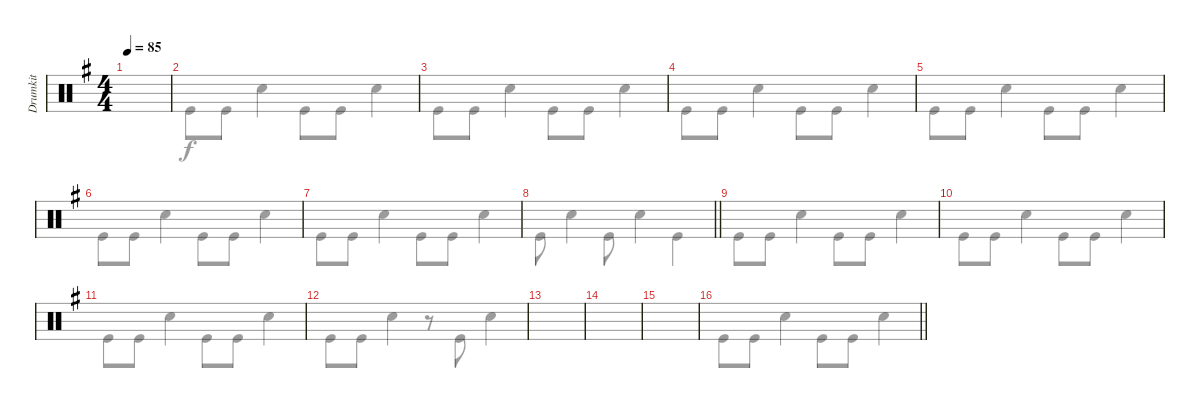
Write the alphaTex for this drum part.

\track ("Drumkit" "Drumkit") {instrument percussion}
\staff {score}
\articulation defaults
\voice
\ts (4 4)
\tempo 85
\clef neutral
\ks eminor
|
|
|
|
|
|
|
\barLineRight lightlight
|
|
|
|
|
|
|
|
\barLineRight lightlight
\voice
\clef neutral
\ks eminor "Kick (hit)".8{dy f} "Kick (hit)".8 "Snare (hit) 2".4 "Kick (hit)".8 "Kick (hit)".8 "Snare (hit) 2".4
|
"Kick (hit)".8 "Kick (hit)".8 "Snare (hit) 2".4 "Kick (hit)".8 "Kick (hit)".8 "Snare (hit) 2".4 |
"Kick (hit)".8 "Kick (hit)".8 "Snare (hit) 2".4 "Kick (hit)".8 "Kick (hit)".8 "Snare (hit) 2".4 |
"Kick (hit)".8 "Kick (hit)".8 "Snare (hit) 2".4 "Kick (hit)".8 "Kick (hit)".8 "Snare (hit) 2".4 |
"Kick (hit)".8 "Kick (hit)".8 "Snare (hit) 2".4 "Kick (hit)".8 "Kick (hit)".8 "Snare (hit) 2".4 |
"Kick (hit)".8 "Kick (hit)".8 "Snare (hit) 2".4 "Kick (hit)".8 "Kick (hit)".8 "Snare (hit) 2".4 |
"Kick (hit)".8 "Kick (hit)".8 "Snare (hit) 2".4 "Kick (hit)".8 "Kick (hit)".8 "Snare (hit) 2".4 |
\barLineRight lightlight "Kick (hit)".8 "Snare (hit) 2".4 "Kick (hit)".8 "Snare (hit) 2".4 "Kick (hit)".4
|
"Kick (hit)".8 "Kick (hit)".8 "Snare (hit) 2".4 "Kick (hit)".8 "Kick (hit)".8 "Snare (hit) 2".4 |
"Kick (hit)".8 "Kick (hit)".8 "Snare (hit) 2".4 "Kick (hit)".8 "Kick (hit)".8 "Snare (hit) 2".4 |
"Kick (hit)".8 "Kick (hit)".8 "Snare (hit) 2".4 "Kick (hit)".8 "Kick (hit)".8 "Snare (hit) 2".4 |
"Kick (hit)".8 "Kick (hit)".8 "Snare (hit) 2".4 r.8 "Kick (hit)".8 "Snare (hit) 2".4 |
|
|
|
\barLineRight lightlight
